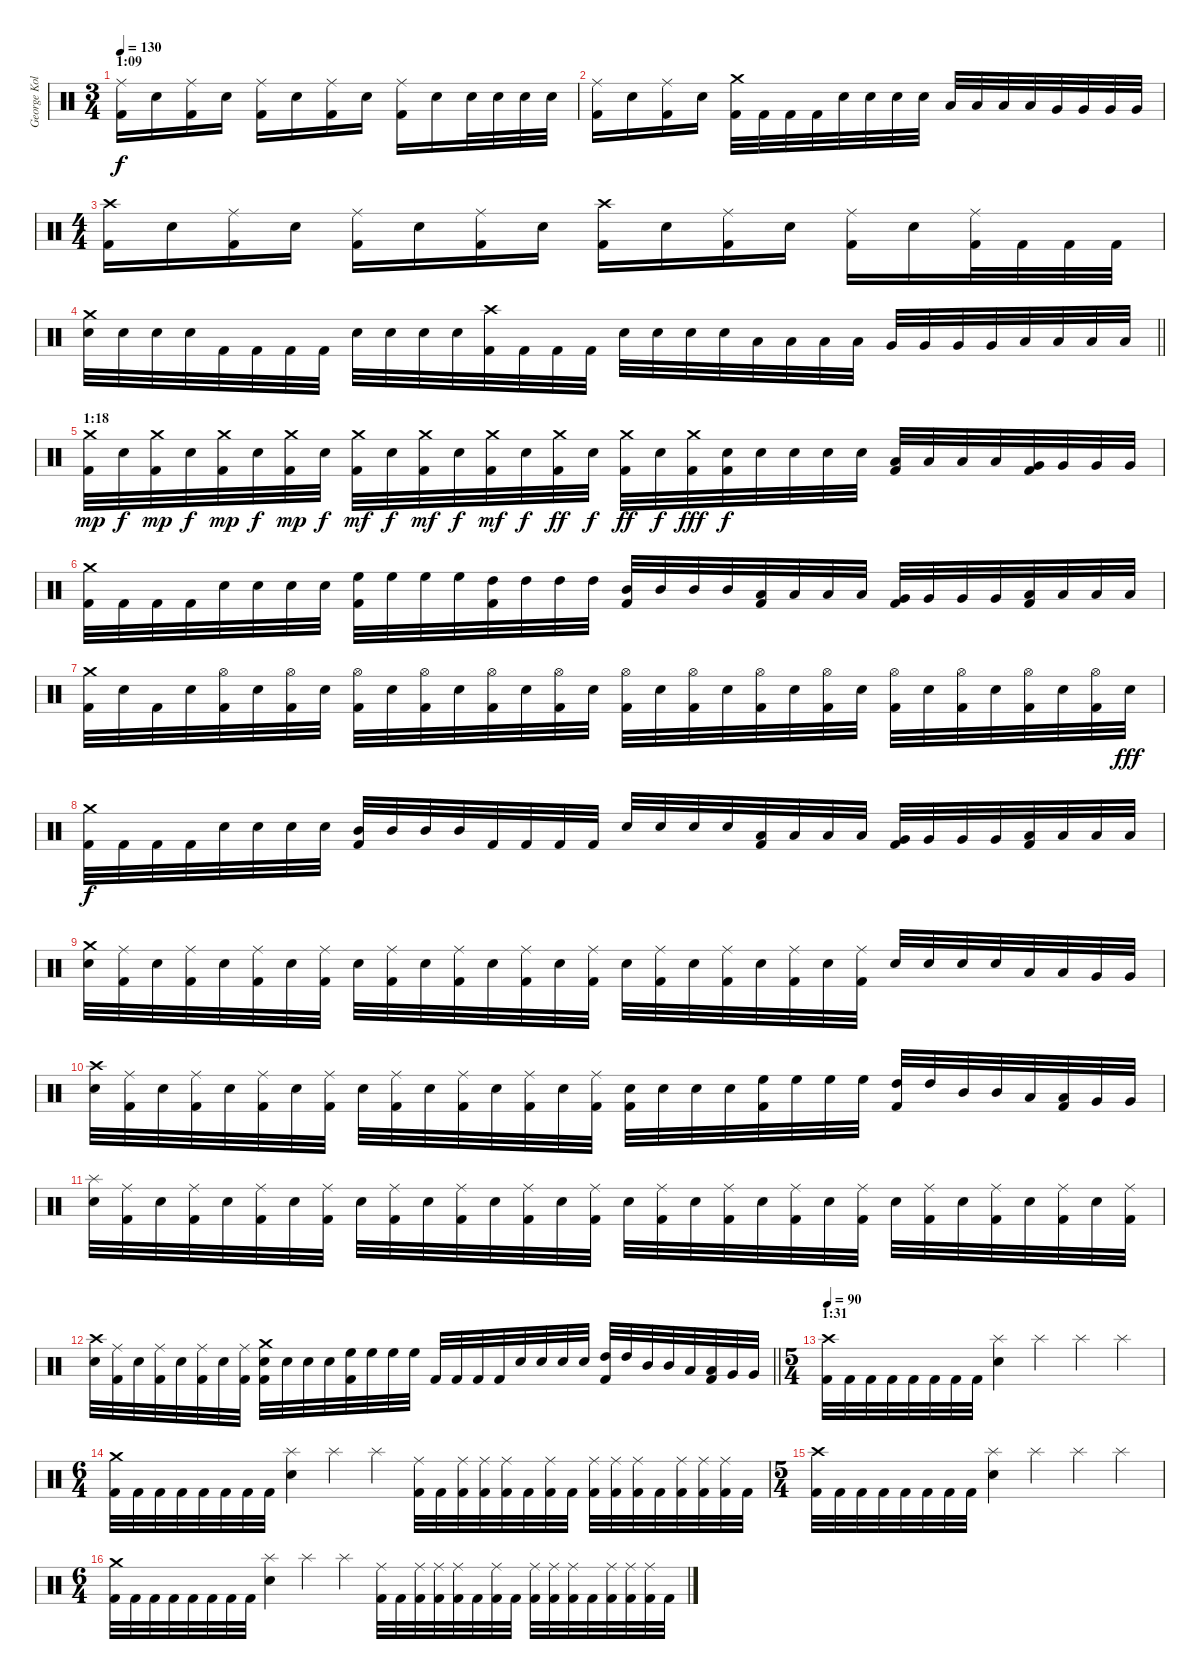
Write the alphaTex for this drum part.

\track ("George Kollias" "George Kol") {instrument percussion}
\staff {score}
\articulation defaults
\ts (3 4)
\section ("" "1:09")
\tempo 130
\clef neutral
\ks c
("Ride (middle)" "Kick (hit) 2").16{dy f} "Electric Snare (hit)".16 ("Ride (middle)" "Kick (hit) 2").16 "Electric Snare (hit)".16 ("Ride (middle)" "Kick (hit) 2").16 "Electric Snare (hit)".16 ("Ride (middle)" "Kick (hit) 2").16 "Electric Snare (hit)".16 ("Ride (middle)" "Kick (hit) 2").16 "Electric Snare (hit)".16 "Electric Snare (hit)".32 "Electric Snare (hit)".32 "Electric Snare (hit)".32 "Electric Snare (hit)".32 |
("Ride (middle)" "Kick (hit) 2").16 "Electric Snare (hit)".16 ("Ride (middle)" "Kick (hit) 2").16 "Electric Snare (hit)".16 ("Crash medium (hit)" "Kick (hit) 2").32 "Kick (hit) 2".32 "Kick (hit) 2".32 "Kick (hit) 2".32 "Electric Snare (hit)".32 "Electric Snare (hit)".32 "Electric Snare (hit)".32 "Electric Snare (hit)".32 "Low Tom (hit)".32 "Low Tom (hit)".32 "Low Tom (hit)".32 "Low Tom (hit)".32 "Very Low Tom (hit)".32 "Very Low Tom (hit)".32 "Very Low Tom (hit)".32 "Very Low Tom (hit)".32 |
\ts (4 4)
("Crash high (hit)" "Kick (hit) 2").16 "Electric Snare (hit)".16 ("Ride (middle)" "Kick (hit) 2").16 "Electric Snare (hit)".16 ("Ride (middle)" "Kick (hit) 2").16 "Electric Snare (hit)".16 ("Ride (middle)" "Kick (hit) 2").16 "Electric Snare (hit)".16 ("Crash high (hit)" "Kick (hit) 2").16 "Electric Snare (hit)".16 ("Ride (middle)" "Kick (hit) 2").16 "Electric Snare (hit)".16 ("Ride (middle)" "Kick (hit) 2").16 "Electric Snare (hit)".16 ("Ride (middle)" "Kick (hit) 2").32 "Kick (hit) 2".32 "Kick (hit) 2".32 "Kick (hit) 2".32 |
\barLineRight lightlight
("Crash medium (hit)" "Electric Snare (hit)").32 "Electric Snare (hit)".32 "Electric Snare (hit)".32 "Electric Snare (hit)".32 "Kick (hit) 2".32 "Kick (hit) 2".32 "Kick (hit) 2".32 "Kick (hit) 2".32 "Electric Snare (hit)".32 "Electric Snare (hit)".32 "Electric Snare (hit)".32 "Electric Snare (hit)".32 ("Crash high (hit)" "Kick (hit) 2").32 "Kick (hit) 2".32 "Kick (hit) 2".32 "Kick (hit) 2".32 "Electric Snare (hit)".32 "Electric Snare (hit)".32 "Electric Snare (hit)".32 "Electric Snare (hit)".32 "Low Tom (hit)".32 "Low Tom (hit)".32 "Low Tom (hit)".32 "Low Tom (hit)".32 "Very Low Tom (hit)".32 "Very Low Tom (hit)".32 "Very Low Tom (hit)".32 "Very Low Tom (hit)".32 "Low Floor Tom (hit)".32 "Low Floor Tom (hit)".32 "Low Floor Tom (hit)".32 "Low Floor Tom (hit)".32 |
\section ("" "1:18")
("Crash medium (hit)" "Kick (hit) 2").32{dy mp} "Electric Snare (hit)".32{dy f} ("Crash medium (hit)" "Kick (hit) 2").32{dy mp} "Electric Snare (hit)".32{dy f} ("Crash medium (hit)" "Kick (hit) 2").32{dy mp} "Electric Snare (hit)".32{dy f} ("Crash medium (hit)" "Kick (hit) 2").32{dy mp} "Electric Snare (hit)".32{dy f} ("Crash medium (hit)" "Kick (hit) 2").32{dy mf} "Electric Snare (hit)".32{dy f} ("Crash medium (hit)" "Kick (hit) 2").32{dy mf} "Electric Snare (hit)".32{dy f} ("Crash medium (hit)" "Kick (hit) 2").32{dy mf} "Electric Snare (hit)".32{dy f} ("Crash medium (hit)" "Kick (hit) 2").32{dy ff} "Electric Snare (hit)".32{dy f} ("Crash medium (hit)" "Kick (hit) 2").32{dy ff} "Electric Snare (hit)".32{dy f} ("Crash medium (hit)" "Kick (hit) 2").32{dy fff} ("Electric Snare (hit)" "Kick (hit) 2").32{dy f} "Electric Snare (hit)".32 "Electric Snare (hit)".32 "Electric Snare (hit)".32 "Electric Snare (hit)".32 ("Low Tom (hit)" "Kick (hit) 2").32 "Low Tom (hit)".32 "Low Tom (hit)".32 "Low Tom (hit)".32 ("Very Low Tom (hit)" "Kick (hit) 2").32 "Very Low Tom (hit)".32 "Very Low Tom (hit)".32 "Very Low Tom (hit)".32 |
("Crash medium (hit)" "Kick (hit) 2").32 "Kick (hit) 2".32 "Kick (hit) 2".32 "Kick (hit) 2".32 "Electric Snare (hit)".32 "Electric Snare (hit)".32 "Electric Snare (hit)".32 "Electric Snare (hit)".32 ("High Floor Tom (hit)" "Kick (hit) 2").32 "High Floor Tom (hit)".32 "High Floor Tom (hit)".32 "High Floor Tom (hit)".32 ("High Tom (hit)" "Kick (hit) 2").32 "High Tom (hit)".32 "High Tom (hit)".32 "High Tom (hit)".32 ("Mid Tom (hit)" "Kick (hit) 2").32 "Mid Tom (hit)".32 "Mid Tom (hit)".32 "Mid Tom (hit)".32 ("Low Tom (hit)" "Kick (hit) 2").32 "Low Tom (hit)".32 "Low Tom (hit)".32 "Low Tom (hit)".32 ("Very Low Tom (hit)" "Kick (hit) 2").32 "Very Low Tom (hit)".32 "Very Low Tom (hit)".32 "Very Low Tom (hit)".32 ("Low Floor Tom (hit)" "Kick (hit) 2").32 "Low Floor Tom (hit)".32 "Low Floor Tom (hit)".32 "Low Floor Tom (hit)".32 |
("Crash medium (hit)" "Kick (hit) 2").32 "Electric Snare (hit)".32 "Kick (hit) 2".32 "Electric Snare (hit)".32 ("Hi-Hat (open)" "Kick (hit) 2").32 "Electric Snare (hit)".32 ("Hi-Hat (open)" "Kick (hit) 2").32 "Electric Snare (hit)".32 ("Hi-Hat (open)" "Kick (hit) 2").32 "Electric Snare (hit)".32 ("Hi-Hat (open)" "Kick (hit) 2").32 "Electric Snare (hit)".32 ("Hi-Hat (open)" "Kick (hit) 2").32 "Electric Snare (hit)".32 ("Hi-Hat (open)" "Kick (hit) 2").32 "Electric Snare (hit)".32 ("Hi-Hat (open)" "Kick (hit) 2").32 "Electric Snare (hit)".32 ("Hi-Hat (open)" "Kick (hit) 2").32 "Electric Snare (hit)".32 ("Hi-Hat (open)" "Kick (hit) 2").32 "Electric Snare (hit)".32 ("Hi-Hat (open)" "Kick (hit) 2").32 "Electric Snare (hit)".32 ("Hi-Hat (open)" "Kick (hit) 2").32 "Electric Snare (hit)".32 ("Hi-Hat (open)" "Kick (hit) 2").32 "Electric Snare (hit)".32 ("Hi-Hat (open)" "Kick (hit) 2").32 "Electric Snare (hit)".32 ("Hi-Hat (open)" "Kick (hit) 2").32 "Electric Snare (hit)".32{dy fff} |
("Crash medium (hit)" "Kick (hit) 2").32{dy f} "Kick (hit) 2".32 "Kick (hit) 2".32 "Kick (hit) 2".32 "Electric Snare (hit)".32 "Electric Snare (hit)".32 "Electric Snare (hit)".32 "Electric Snare (hit)".32 ("Mid Tom (hit)" "Kick (hit) 2").32 "Mid Tom (hit)".32 "Mid Tom (hit)".32 "Mid Tom (hit)".32 "Kick (hit) 2".32 "Kick (hit) 2".32 "Kick (hit) 2".32 "Kick (hit) 2".32 "Electric Snare (hit)".32 "Electric Snare (hit)".32 "Electric Snare (hit)".32 "Electric Snare (hit)".32 ("Low Tom (hit)" "Kick (hit) 2").32 "Low Tom (hit)".32 "Low Tom (hit)".32 "Low Tom (hit)".32 ("Very Low Tom (hit)" "Kick (hit) 2").32 "Very Low Tom (hit)".32 "Very Low Tom (hit)".32 "Very Low Tom (hit)".32 ("Low Floor Tom (hit)" "Kick (hit) 2").32 "Low Floor Tom (hit)".32 "Low Floor Tom (hit)".32 "Low Floor Tom (hit)".32 |
("Crash medium (hit)" "Electric Snare (hit)").32 ("Ride (middle)" "Kick (hit) 2").32 "Electric Snare (hit)".32 ("Ride (middle)" "Kick (hit) 2").32 "Electric Snare (hit)".32 ("Ride (middle)" "Kick (hit) 2").32 "Electric Snare (hit)".32 ("Ride (middle)" "Kick (hit) 2").32 "Electric Snare (hit)".32 ("Ride (middle)" "Kick (hit) 2").32 "Electric Snare (hit)".32 ("Ride (middle)" "Kick (hit) 2").32 "Electric Snare (hit)".32 ("Ride (middle)" "Kick (hit) 2").32 "Electric Snare (hit)".32 ("Ride (middle)" "Kick (hit) 2").32 "Electric Snare (hit)".32 ("Ride (middle)" "Kick (hit) 2").32 "Electric Snare (hit)".32 ("Ride (middle)" "Kick (hit) 2").32 "Electric Snare (hit)".32 ("Ride (middle)" "Kick (hit) 2").32 "Electric Snare (hit)".32 ("Ride (middle)" "Kick (hit) 2").32 "Electric Snare (hit)".32 "Electric Snare (hit)".32 "Electric Snare (hit)".32 "Electric Snare (hit)".32 "Low Tom (hit)".32 "Low Tom (hit)".32 "Very Low Tom (hit)".32 "Very Low Tom (hit)".32 |
("Crash high (hit)" "Electric Snare (hit)").32 ("Ride (middle)" "Kick (hit) 2").32 "Electric Snare (hit)".32 ("Ride (middle)" "Kick (hit) 2").32 "Electric Snare (hit)".32 ("Ride (middle)" "Kick (hit) 2").32 "Electric Snare (hit)".32 ("Ride (middle)" "Kick (hit) 2").32 "Electric Snare (hit)".32 ("Ride (middle)" "Kick (hit) 2").32 "Electric Snare (hit)".32 ("Ride (middle)" "Kick (hit) 2").32 "Electric Snare (hit)".32 ("Ride (middle)" "Kick (hit) 2").32 "Electric Snare (hit)".32 ("Ride (middle)" "Kick (hit) 2").32 ("Electric Snare (hit)" "Kick (hit) 2").32 "Electric Snare (hit)".32 "Electric Snare (hit)".32 "Electric Snare (hit)".32 ("High Floor Tom (hit)" "Kick (hit) 2").32 "High Floor Tom (hit)".32 "High Floor Tom (hit)".32 "High Floor Tom (hit)".32 ("High Tom (hit)" "Kick (hit) 2").32 "High Tom (hit)".32 "Mid Tom (hit)".32 "Mid Tom (hit)".32 "Low Tom (hit)".32 ("Low Tom (hit)" "Kick (hit) 2").32 "Very Low Tom (hit)".32 "Very Low Tom (hit)".32 |
("Splash (hit)" "Electric Snare (hit)").32 ("Ride (middle)" "Kick (hit) 2").32 "Electric Snare (hit)".32 ("Ride (middle)" "Kick (hit) 2").32 "Electric Snare (hit)".32 ("Ride (middle)" "Kick (hit) 2").32 "Electric Snare (hit)".32 ("Ride (middle)" "Kick (hit) 2").32 "Electric Snare (hit)".32 ("Ride (middle)" "Kick (hit) 2").32 "Electric Snare (hit)".32 ("Ride (middle)" "Kick (hit) 2").32 "Electric Snare (hit)".32 ("Ride (middle)" "Kick (hit) 2").32 "Electric Snare (hit)".32 ("Ride (middle)" "Kick (hit) 2").32 "Electric Snare (hit)".32 ("Ride (middle)" "Kick (hit) 2").32 "Electric Snare (hit)".32 ("Ride (middle)" "Kick (hit) 2").32 "Electric Snare (hit)".32 ("Ride (middle)" "Kick (hit) 2").32 "Electric Snare (hit)".32 ("Ride (middle)" "Kick (hit) 2").32 "Electric Snare (hit)".32 ("Ride (middle)" "Kick (hit) 2").32 "Electric Snare (hit)".32 ("Ride (middle)" "Kick (hit) 2").32 "Electric Snare (hit)".32 ("Ride (middle)" "Kick (hit) 2").32 "Electric Snare (hit)".32 ("Ride (middle)" "Kick (hit) 2").32 |
\barLineRight lightlight
("Crash high (hit)" "Electric Snare (hit)").32 ("Ride (middle)" "Kick (hit) 2").32 "Electric Snare (hit)".32 ("Ride (middle)" "Kick (hit) 2").32 "Electric Snare (hit)".32 ("Ride (middle)" "Kick (hit) 2").32 "Electric Snare (hit)".32 ("Ride (middle)" "Kick (hit) 2").32 ("Crash medium (hit)" "Electric Snare (hit)" "Kick (hit) 2").32 "Electric Snare (hit)".32 "Electric Snare (hit)".32 "Electric Snare (hit)".32 ("High Floor Tom (hit)" "Kick (hit) 2").32 "High Floor Tom (hit)".32 "High Floor Tom (hit)".32 "High Floor Tom (hit)".32 "Kick (hit) 2".32 "Kick (hit) 2".32 "Kick (hit) 2".32 "Kick (hit) 2".32 "Electric Snare (hit)".32 "Electric Snare (hit)".32 "Electric Snare (hit)".32 "Electric Snare (hit)".32 ("High Tom (hit)" "Kick (hit) 2").32 "High Tom (hit)".32 "Mid Tom (hit)".32 "Mid Tom (hit)".32 "Low Tom (hit)".32 ("Low Tom (hit)" "Kick (hit) 2").32 "Very Low Tom (hit)".32 "Very Low Tom (hit)".32 |
\ts (5 4)
\section ("" "1:31")
\tempo 90
("Crash high (hit)" "Kick (hit) 2").32 "Kick (hit) 2".32 "Kick (hit) 2".32 "Kick (hit) 2".32 "Kick (hit) 2".32 "Kick (hit) 2".32 "Kick (hit) 2".32 "Kick (hit) 2".32 ("Splash (hit)" "Electric Snare (hit)").4 "Splash (hit)".4 "Splash (hit)".4 "Splash (hit)".4 |
\ts (6 4)
("Crash medium (hit)" "Kick (hit) 2").32 "Kick (hit) 2".32 "Kick (hit) 2".32 "Kick (hit) 2".32 "Kick (hit) 2".32 "Kick (hit) 2".32 "Kick (hit) 2".32 "Kick (hit) 2".32 ("Splash (hit)" "Electric Snare (hit)").4 "Splash (hit)".4 "Splash (hit)".4 ("Ride (middle)" "Kick (hit) 2").32 "Kick (hit) 2".32 ("Ride (middle)" "Kick (hit) 2").32 ("Ride (middle)" "Kick (hit) 2").32 ("Ride (middle)" "Kick (hit) 2").32 "Kick (hit) 2".32 ("Ride (middle)" "Kick (hit) 2").32 "Kick (hit) 2".32 ("Ride (middle)" "Kick (hit) 2").32 ("Ride (middle)" "Kick (hit) 2").32 ("Ride (middle)" "Kick (hit) 2").32 "Kick (hit) 2".32 ("Ride (middle)" "Kick (hit) 2").32 ("Ride (middle)" "Kick (hit) 2").32 ("Ride (middle)" "Kick (hit) 2").32 "Kick (hit) 2".32 |
\ts (5 4)
("Crash high (hit)" "Kick (hit) 2").32 "Kick (hit) 2".32 "Kick (hit) 2".32 "Kick (hit) 2".32 "Kick (hit) 2".32 "Kick (hit) 2".32 "Kick (hit) 2".32 "Kick (hit) 2".32 ("Splash (hit)" "Electric Snare (hit)").4 "Splash (hit)".4 "Splash (hit)".4 "Splash (hit)".4 |
\ts (6 4)
("Crash medium (hit)" "Kick (hit) 2").32 "Kick (hit) 2".32 "Kick (hit) 2".32 "Kick (hit) 2".32 "Kick (hit) 2".32 "Kick (hit) 2".32 "Kick (hit) 2".32 "Kick (hit) 2".32 ("Splash (hit)" "Electric Snare (hit)").4 "Splash (hit)".4 "Splash (hit)".4 ("Ride (middle)" "Kick (hit) 2").32 "Kick (hit) 2".32 ("Ride (middle)" "Kick (hit) 2").32 ("Ride (middle)" "Kick (hit) 2").32 ("Ride (middle)" "Kick (hit) 2").32 "Kick (hit) 2".32 ("Ride (middle)" "Kick (hit) 2").32 "Kick (hit) 2".32 ("Ride (middle)" "Kick (hit) 2").32 ("Ride (middle)" "Kick (hit) 2").32 ("Ride (middle)" "Kick (hit) 2").32 "Kick (hit) 2".32 ("Ride (middle)" "Kick (hit) 2").32 ("Ride (middle)" "Kick (hit) 2").32 ("Ride (middle)" "Kick (hit) 2").32 "Kick (hit) 2".32
